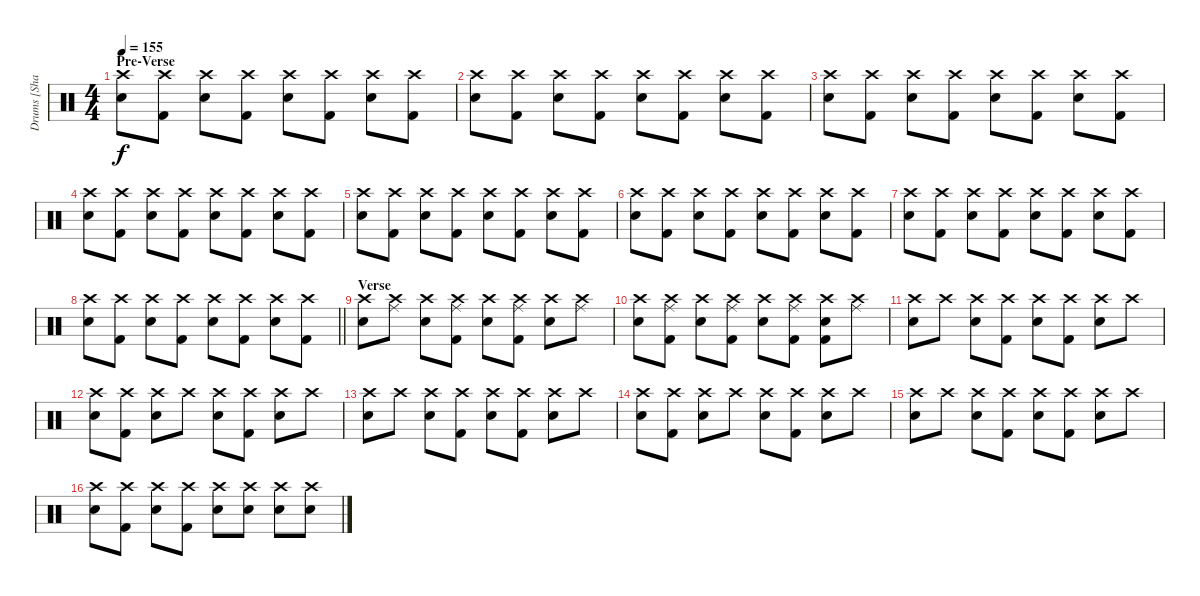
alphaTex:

\track ("Drums [Shannon Larkin]" "Drums [Sha") {instrument percussion}
\staff {score}
\articulation defaults
\ts (4 4)
\section ("" "Pre-Verse")
\tempo 155
\clef neutral
\ks c
("Crash high (hit)" "Electric Snare (hit)").8{dy f} ("Crash high (hit)" "Kick (hit) 2").8 ("Crash high (hit)" "Electric Snare (hit)").8 ("Crash high (hit)" "Kick (hit) 2").8 ("Crash high (hit)" "Electric Snare (hit)").8 ("Crash high (hit)" "Kick (hit) 2").8 ("Crash high (hit)" "Electric Snare (hit)").8 ("Crash high (hit)" "Kick (hit) 2").8 |
("Crash high (hit)" "Electric Snare (hit)").8 ("Crash high (hit)" "Kick (hit) 2").8 ("Crash high (hit)" "Electric Snare (hit)").8 ("Crash high (hit)" "Kick (hit) 2").8 ("Crash high (hit)" "Electric Snare (hit)").8 ("Crash high (hit)" "Kick (hit) 2").8 ("Crash high (hit)" "Electric Snare (hit)").8 ("Crash high (hit)" "Kick (hit) 2").8 |
("Crash high (hit)" "Electric Snare (hit)").8 ("Crash high (hit)" "Kick (hit) 2").8 ("Crash high (hit)" "Electric Snare (hit)").8 ("Crash high (hit)" "Kick (hit) 2").8 ("Crash high (hit)" "Electric Snare (hit)").8 ("Crash high (hit)" "Kick (hit) 2").8 ("Crash high (hit)" "Electric Snare (hit)").8 ("Crash high (hit)" "Kick (hit) 2").8 |
("Crash high (hit)" "Electric Snare (hit)").8 ("Crash high (hit)" "Kick (hit) 2").8 ("Crash high (hit)" "Electric Snare (hit)").8 ("Crash high (hit)" "Kick (hit) 2").8 ("Crash high (hit)" "Electric Snare (hit)").8 ("Crash high (hit)" "Kick (hit) 2").8 ("Crash high (hit)" "Electric Snare (hit)").8 ("Crash high (hit)" "Kick (hit) 2").8 |
("Crash high (hit)" "Electric Snare (hit)").8 ("Crash high (hit)" "Kick (hit) 2").8 ("Crash high (hit)" "Electric Snare (hit)").8 ("Crash high (hit)" "Kick (hit) 2").8 ("Crash high (hit)" "Electric Snare (hit)").8 ("Crash high (hit)" "Kick (hit) 2").8 ("Crash high (hit)" "Electric Snare (hit)").8 ("Crash high (hit)" "Kick (hit) 2").8 |
("Crash high (hit)" "Electric Snare (hit)").8 ("Crash high (hit)" "Kick (hit) 2").8 ("Crash high (hit)" "Electric Snare (hit)").8 ("Crash high (hit)" "Kick (hit) 2").8 ("Crash high (hit)" "Electric Snare (hit)").8 ("Crash high (hit)" "Kick (hit) 2").8 ("Crash high (hit)" "Electric Snare (hit)").8 ("Crash high (hit)" "Kick (hit) 2").8 |
("Crash high (hit)" "Electric Snare (hit)").8 ("Crash high (hit)" "Kick (hit) 2").8 ("Crash high (hit)" "Electric Snare (hit)").8 ("Crash high (hit)" "Kick (hit) 2").8 ("Crash high (hit)" "Electric Snare (hit)").8 ("Crash high (hit)" "Kick (hit) 2").8 ("Crash high (hit)" "Electric Snare (hit)").8 ("Crash high (hit)" "Kick (hit) 2").8 |
\barLineRight lightlight
("Crash high (hit)" "Electric Snare (hit)").8 ("Crash high (hit)" "Kick (hit) 2").8 ("Crash high (hit)" "Electric Snare (hit)").8 ("Crash high (hit)" "Kick (hit) 2").8 ("Crash high (hit)" "Electric Snare (hit)").8 ("Crash high (hit)" "Kick (hit) 2").8 ("Crash high (hit)" "Electric Snare (hit)").8 ("Crash high (hit)" "Kick (hit) 2").8 |
\section ("" "Verse")
("Crash high (hit)" "Electric Snare (hit)").8 ("Crash high (hit)" "Ride (middle)").8 ("Crash high (hit)" "Electric Snare (hit)").8 ("Crash high (hit)" "Ride (middle)" "Kick (hit) 2").8 ("Crash high (hit)" "Electric Snare (hit)").8 ("Crash high (hit)" "Ride (middle)" "Kick (hit) 2").8 ("Crash high (hit)" "Electric Snare (hit)").8 ("Crash high (hit)" "Ride (middle)").8 |
("Crash high (hit)" "Electric Snare (hit)").8 ("Crash high (hit)" "Ride (middle)" "Kick (hit) 2").8 ("Crash high (hit)" "Electric Snare (hit)").8 ("Crash high (hit)" "Ride (middle)" "Kick (hit) 2").8 ("Crash high (hit)" "Electric Snare (hit)").8 ("Crash high (hit)" "Ride (middle)" "Kick (hit) 2").8 ("Crash high (hit)" "Electric Snare (hit)" "Kick (hit) 2").8 ("Crash high (hit)" "Ride (middle)").8 |
("Crash high (hit)" "Electric Snare (hit)").8 "Crash high (hit)".8 ("Crash high (hit)" "Electric Snare (hit)").8 ("Crash high (hit)" "Kick (hit) 2").8 ("Crash high (hit)" "Electric Snare (hit)").8 ("Crash high (hit)" "Kick (hit) 2").8 ("Crash high (hit)" "Electric Snare (hit)").8 "Crash high (hit)".8 |
("Crash high (hit)" "Electric Snare (hit)").8 ("Crash high (hit)" "Kick (hit) 2").8 ("Crash high (hit)" "Electric Snare (hit)").8 "Crash high (hit)".8 ("Crash high (hit)" "Electric Snare (hit)").8 ("Crash high (hit)" "Kick (hit) 2").8 ("Crash high (hit)" "Electric Snare (hit)").8 "Crash high (hit)".8 |
("Crash high (hit)" "Electric Snare (hit)").8 "Crash high (hit)".8 ("Crash high (hit)" "Electric Snare (hit)").8 ("Crash high (hit)" "Kick (hit) 2").8 ("Crash high (hit)" "Electric Snare (hit)").8 ("Crash high (hit)" "Kick (hit) 2").8 ("Crash high (hit)" "Electric Snare (hit)").8 "Crash high (hit)".8 |
("Crash high (hit)" "Electric Snare (hit)").8 ("Crash high (hit)" "Kick (hit) 2").8 ("Crash high (hit)" "Electric Snare (hit)").8 "Crash high (hit)".8 ("Crash high (hit)" "Electric Snare (hit)").8 ("Crash high (hit)" "Kick (hit) 2").8 ("Crash high (hit)" "Electric Snare (hit)").8 "Crash high (hit)".8 |
("Crash high (hit)" "Electric Snare (hit)").8 "Crash high (hit)".8 ("Crash high (hit)" "Electric Snare (hit)").8 ("Crash high (hit)" "Kick (hit) 2").8 ("Crash high (hit)" "Electric Snare (hit)").8 ("Crash high (hit)" "Kick (hit) 2").8 ("Crash high (hit)" "Electric Snare (hit)").8 "Crash high (hit)".8 |
("Crash high (hit)" "Electric Snare (hit)").8 ("Crash high (hit)" "Kick (hit) 2").8 ("Crash high (hit)" "Electric Snare (hit)").8 ("Crash high (hit)" "Kick (hit) 2").8 ("Crash high (hit)" "Electric Snare (hit)").8 ("Crash high (hit)" "Electric Snare (hit)").8 ("Crash high (hit)" "Electric Snare (hit)").8 ("Crash high (hit)" "Electric Snare (hit)").8
